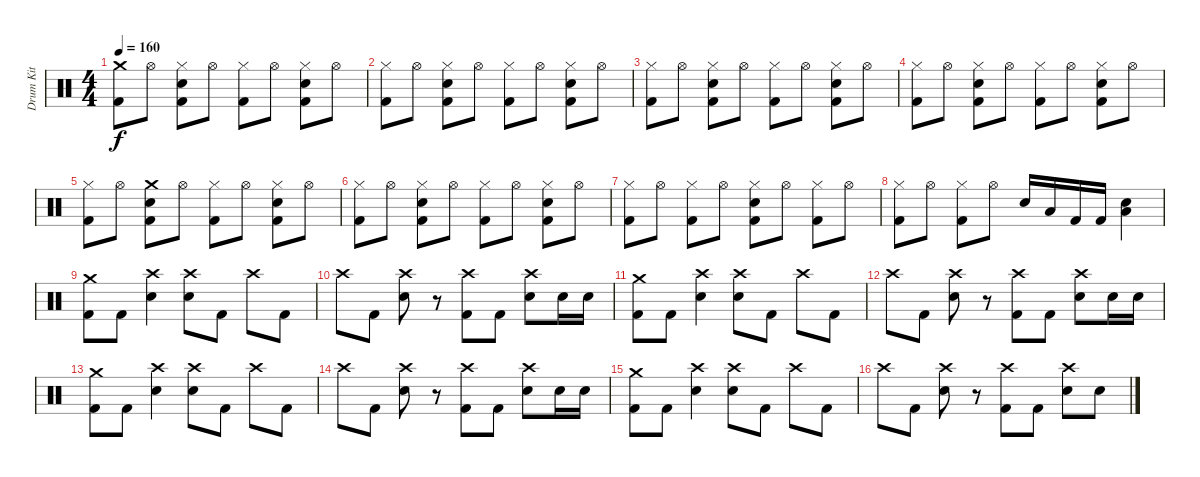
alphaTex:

\track ("Drum Kit" "Drum Kit") {instrument percussion}
\staff {score}
\articulation defaults
\ts (4 4)
\tempo 160
\clef neutral
\ks c
("Crash medium (hit)" "Kick (hit) 2").8{dy f} "Hi-Hat (open)".8 ("Hi-Hat (closed)" "Electric Snare (hit)" "Kick (hit) 2").8 "Hi-Hat (open)".8 ("Hi-Hat (closed)" "Kick (hit) 2").8 "Hi-Hat (open)".8 ("Hi-Hat (closed)" "Electric Snare (hit)" "Kick (hit) 2").8 "Hi-Hat (open)".8 |
("Hi-Hat (closed)" "Kick (hit) 2").8 "Hi-Hat (open)".8 ("Hi-Hat (closed)" "Electric Snare (hit)" "Kick (hit) 2").8 "Hi-Hat (open)".8 ("Hi-Hat (closed)" "Kick (hit) 2").8 "Hi-Hat (open)".8 ("Hi-Hat (closed)" "Electric Snare (hit)" "Kick (hit) 2").8 "Hi-Hat (open)".8 |
("Hi-Hat (closed)" "Kick (hit) 2").8 "Hi-Hat (open)".8 ("Hi-Hat (closed)" "Electric Snare (hit)" "Kick (hit) 2").8 "Hi-Hat (open)".8 ("Hi-Hat (closed)" "Kick (hit) 2").8 "Hi-Hat (open)".8 ("Hi-Hat (closed)" "Electric Snare (hit)" "Kick (hit) 2").8 "Hi-Hat (open)".8 |
("Hi-Hat (closed)" "Kick (hit) 2").8 "Hi-Hat (open)".8 ("Hi-Hat (closed)" "Electric Snare (hit)" "Kick (hit) 2").8 "Hi-Hat (open)".8 ("Hi-Hat (closed)" "Kick (hit) 2").8 "Hi-Hat (open)".8 ("Hi-Hat (closed)" "Electric Snare (hit)" "Kick (hit) 2").8 "Hi-Hat (open)".8 |
("Hi-Hat (closed)" "Kick (hit) 2").8 "Hi-Hat (open)".8 ("Crash medium (hit)" "Electric Snare (hit)" "Kick (hit) 2").8 "Hi-Hat (open)".8 ("Hi-Hat (closed)" "Kick (hit) 2").8 "Hi-Hat (open)".8 ("Hi-Hat (closed)" "Electric Snare (hit)" "Kick (hit) 2").8 "Hi-Hat (open)".8 |
("Hi-Hat (closed)" "Kick (hit) 2").8 "Hi-Hat (open)".8 ("Hi-Hat (closed)" "Electric Snare (hit)" "Kick (hit) 2").8 "Hi-Hat (open)".8 ("Hi-Hat (closed)" "Kick (hit) 2").8 "Hi-Hat (open)".8 ("Hi-Hat (closed)" "Electric Snare (hit)" "Kick (hit) 2").8 "Hi-Hat (open)".8 |
("Hi-Hat (closed)" "Kick (hit) 2").8 "Hi-Hat (open)".8 ("Hi-Hat (closed)" "Kick (hit) 2").8 "Hi-Hat (open)".8 ("Hi-Hat (closed)" "Electric Snare (hit)" "Kick (hit) 2").8 "Hi-Hat (open)".8 ("Hi-Hat (closed)" "Kick (hit) 2").8 "Hi-Hat (open)".8 |
("Hi-Hat (closed)" "Kick (hit) 2").8 "Hi-Hat (open)".8 ("Hi-Hat (closed)" "Kick (hit) 2").8 "Hi-Hat (open)".8 "Electric Snare (hit)".16 "Low Tom (hit)".16 "Kick (hit) 2".16 "Kick (hit) 2".16 ("Low Floor Tom (hit)" "Electric Snare (hit)").4 |
("Crash medium (hit)" "Kick (hit) 2").8 "Kick (hit) 2".8 ("Crash high (hit)" "Electric Snare (hit)").4 ("Crash high (hit)" "Electric Snare (hit)").8 "Kick (hit) 2".8 "Crash high (hit)".8 "Kick (hit) 2".8 |
"Crash high (hit)".8 "Kick (hit) 2".8 ("Crash high (hit)" "Electric Snare (hit)").8 r.8 ("Crash high (hit)" "Kick (hit) 2").8 "Kick (hit) 2".8 ("Crash high (hit)" "Electric Snare (hit)").8 "Electric Snare (hit)".16 "Electric Snare (hit)".16 |
("Crash medium (hit)" "Kick (hit) 2").8 "Kick (hit) 2".8 ("Crash high (hit)" "Electric Snare (hit)").4 ("Crash high (hit)" "Electric Snare (hit)").8 "Kick (hit) 2".8 "Crash high (hit)".8 "Kick (hit) 2".8 |
"Crash high (hit)".8 "Kick (hit) 2".8 ("Crash high (hit)" "Electric Snare (hit)").8 r.8 ("Crash high (hit)" "Kick (hit) 2").8 "Kick (hit) 2".8 ("Crash high (hit)" "Electric Snare (hit)").8 "Electric Snare (hit)".16 "Electric Snare (hit)".16 |
("Crash medium (hit)" "Kick (hit) 2").8 "Kick (hit) 2".8 ("Crash high (hit)" "Electric Snare (hit)").4 ("Crash high (hit)" "Electric Snare (hit)").8 "Kick (hit) 2".8 "Crash high (hit)".8 "Kick (hit) 2".8 |
"Crash high (hit)".8 "Kick (hit) 2".8 ("Crash high (hit)" "Electric Snare (hit)").8 r.8 ("Crash high (hit)" "Kick (hit) 2").8 "Kick (hit) 2".8 ("Crash high (hit)" "Electric Snare (hit)").8 "Electric Snare (hit)".16 "Electric Snare (hit)".16 |
("Crash medium (hit)" "Kick (hit) 2").8 "Kick (hit) 2".8 ("Crash high (hit)" "Electric Snare (hit)").4 ("Crash high (hit)" "Electric Snare (hit)").8 "Kick (hit) 2".8 "Crash high (hit)".8 "Kick (hit) 2".8 |
"Crash high (hit)".8 "Kick (hit) 2".8 ("Crash high (hit)" "Electric Snare (hit)").8 r.8 ("Crash high (hit)" "Kick (hit) 2").8 "Kick (hit) 2".8 ("Crash high (hit)" "Electric Snare (hit)").8 "Electric Snare (hit)".8
